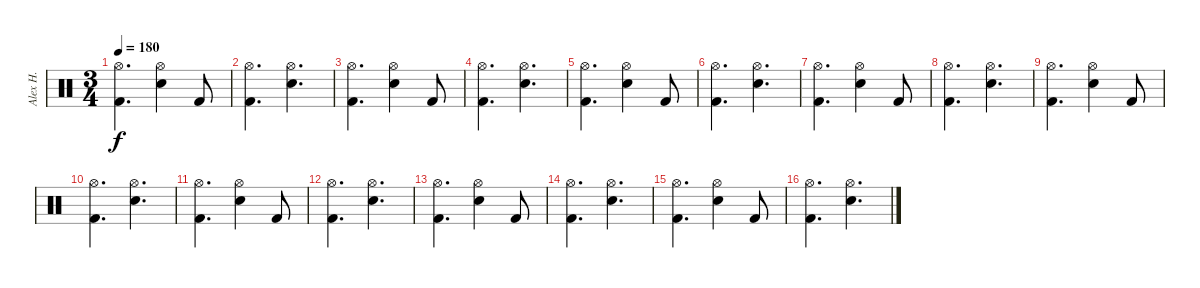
\track ("Alex H." "Alex H.") {instrument percussion}
\staff {score}
\articulation defaults
\ts (3 4)
\tempo 180
\clef neutral
\ks c
("Kick (hit) 2" "Hi-Hat (open)").4{d dy f} ("Electric Snare (hit)" "Hi-Hat (open)").4 "Kick (hit) 2".8 |
("Kick (hit) 2" "Hi-Hat (open)").4{d} ("Electric Snare (hit)" "Hi-Hat (open)").4{d} |
("Kick (hit) 2" "Hi-Hat (open)").4{d} ("Electric Snare (hit)" "Hi-Hat (open)").4 "Kick (hit) 2".8 |
("Kick (hit) 2" "Hi-Hat (open)").4{d} ("Electric Snare (hit)" "Hi-Hat (open)").4{d} |
("Kick (hit) 2" "Hi-Hat (open)").4{d} ("Electric Snare (hit)" "Hi-Hat (open)").4 "Kick (hit) 2".8 |
("Kick (hit) 2" "Hi-Hat (open)").4{d} ("Electric Snare (hit)" "Hi-Hat (open)").4{d} |
("Kick (hit) 2" "Hi-Hat (open)").4{d} ("Electric Snare (hit)" "Hi-Hat (open)").4 "Kick (hit) 2".8 |
("Kick (hit) 2" "Hi-Hat (open)").4{d} ("Electric Snare (hit)" "Hi-Hat (open)").4{d} |
("Kick (hit) 2" "Hi-Hat (open)").4{d} ("Electric Snare (hit)" "Hi-Hat (open)").4 "Kick (hit) 2".8 |
("Kick (hit) 2" "Hi-Hat (open)").4{d} ("Electric Snare (hit)" "Hi-Hat (open)").4{d} |
("Kick (hit) 2" "Hi-Hat (open)").4{d} ("Electric Snare (hit)" "Hi-Hat (open)").4 "Kick (hit) 2".8 |
("Kick (hit) 2" "Hi-Hat (open)").4{d} ("Electric Snare (hit)" "Hi-Hat (open)").4{d} |
("Kick (hit) 2" "Hi-Hat (open)").4{d} ("Electric Snare (hit)" "Hi-Hat (open)").4 "Kick (hit) 2".8 |
("Kick (hit) 2" "Hi-Hat (open)").4{d} ("Electric Snare (hit)" "Hi-Hat (open)").4{d} |
("Kick (hit) 2" "Hi-Hat (open)").4{d} ("Electric Snare (hit)" "Hi-Hat (open)").4 "Kick (hit) 2".8 |
("Kick (hit) 2" "Hi-Hat (open)").4{d} ("Electric Snare (hit)" "Hi-Hat (open)").4{d}
